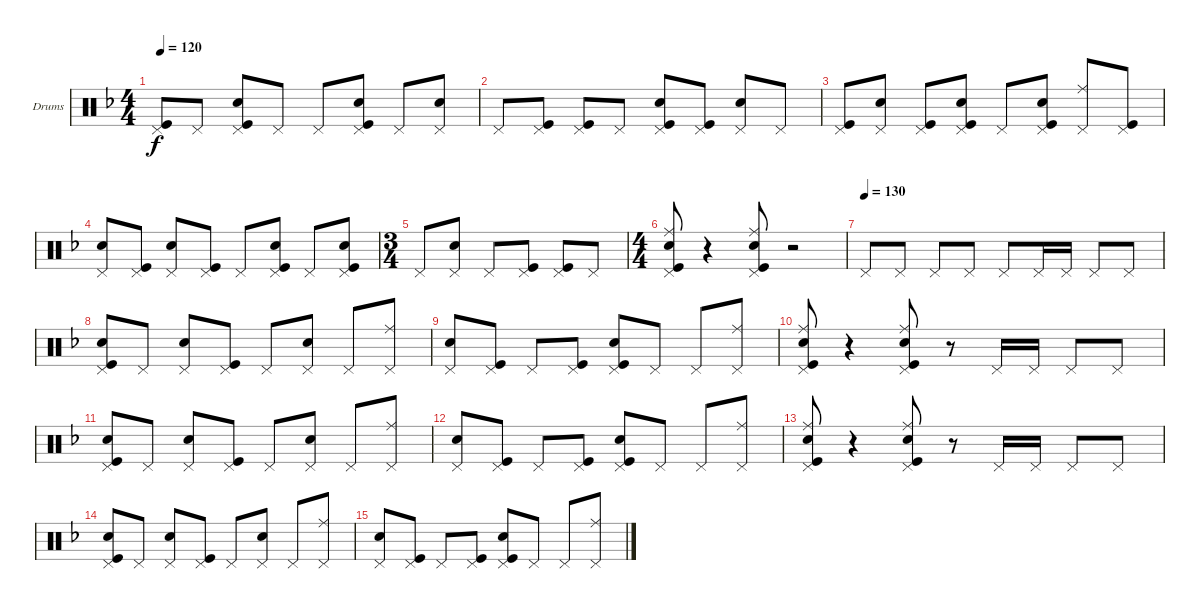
\defaultSystemsLayout 4
\bracketExtendMode groupsimilarinstruments
\firstSystemTrackNameOrientation horizontal
\otherSystemsTrackNameOrientation horizontal
\track ("Drumkit" "Drums") {instrument percussion}
\staff {score}
\articulation defaults
\ts (4 4)
\tempo 120
\clef neutral
\ks f
("Pedal Hi-Hat (hit)" "Kick (hit)").8{dy f} "Pedal Hi-Hat (hit)".8 ("Pedal Hi-Hat (hit)" "Kick (hit)" "Snare (hit) 2").8 "Pedal Hi-Hat (hit)".8 "Pedal Hi-Hat (hit)".8 ("Pedal Hi-Hat (hit)" "Kick (hit)" "Snare (hit) 2").8 "Pedal Hi-Hat (hit)".8 ("Pedal Hi-Hat (hit)" "Snare (hit) 2").8 |
"Pedal Hi-Hat (hit)".8 ("Pedal Hi-Hat (hit)" "Kick (hit)").8 ("Pedal Hi-Hat (hit)" "Kick (hit)").8 "Pedal Hi-Hat (hit)".8 ("Pedal Hi-Hat (hit)" "Kick (hit)" "Snare (hit) 2").8 ("Pedal Hi-Hat (hit)" "Kick (hit)").8 ("Pedal Hi-Hat (hit)" "Snare (hit) 2").8 "Pedal Hi-Hat (hit)".8 |
("Pedal Hi-Hat (hit)" "Kick (hit)").8 ("Pedal Hi-Hat (hit)" "Snare (hit) 2").8 ("Pedal Hi-Hat (hit)" "Kick (hit)").8 ("Pedal Hi-Hat (hit)" "Kick (hit)" "Snare (hit) 2").8 "Pedal Hi-Hat (hit)".8 ("Pedal Hi-Hat (hit)" "Snare (hit) 2" "Kick (hit)").8 ("Pedal Hi-Hat (hit)" "Ride (middle)").8 ("Pedal Hi-Hat (hit)" "Kick (hit)").8 |
("Pedal Hi-Hat (hit)" "Snare (hit) 2").8 ("Pedal Hi-Hat (hit)" "Kick (hit)").8 ("Pedal Hi-Hat (hit)" "Snare (hit) 2").8 ("Pedal Hi-Hat (hit)" "Kick (hit)").8 "Pedal Hi-Hat (hit)".8 ("Pedal Hi-Hat (hit)" "Kick (hit)" "Snare (hit) 2").8 "Pedal Hi-Hat (hit)".8 ("Pedal Hi-Hat (hit)" "Kick (hit)" "Snare (hit) 2").8 |
\ts (3 4)
"Pedal Hi-Hat (hit)".8 ("Pedal Hi-Hat (hit)" "Snare (hit) 2").8 "Pedal Hi-Hat (hit)".8 ("Pedal Hi-Hat (hit)" "Kick (hit)").8 ("Pedal Hi-Hat (hit)" "Kick (hit)").8 "Pedal Hi-Hat (hit)".8 |
\ts (4 4)
("Pedal Hi-Hat (hit)" "Kick (hit)" "Ride (middle)" "Snare (hit) 2").8 r.4 ("Ride (middle)" "Kick (hit)" "Pedal Hi-Hat (hit)" "Snare (hit) 2").8 r.2 |
\tempo (130)
"Pedal Hi-Hat (hit)".8 "Pedal Hi-Hat (hit)".8 "Pedal Hi-Hat (hit)".8 "Pedal Hi-Hat (hit)".8 "Pedal Hi-Hat (hit)".8 "Pedal Hi-Hat (hit)".16 "Pedal Hi-Hat (hit)".16 "Pedal Hi-Hat (hit)".8 "Pedal Hi-Hat (hit)".8 |
("Pedal Hi-Hat (hit)" "Kick (hit)" "Snare (hit) 2").8 "Pedal Hi-Hat (hit)".8 ("Pedal Hi-Hat (hit)" "Snare (hit) 2").8 ("Pedal Hi-Hat (hit)" "Kick (hit)").8 "Pedal Hi-Hat (hit)".8 ("Pedal Hi-Hat (hit)" "Snare (hit) 2").8 "Pedal Hi-Hat (hit)".8 ("Pedal Hi-Hat (hit)" "Ride (middle)").8 |
("Pedal Hi-Hat (hit)" "Snare (hit) 2").8 ("Pedal Hi-Hat (hit)" "Kick (hit)").8 "Pedal Hi-Hat (hit)".8 ("Pedal Hi-Hat (hit)" "Kick (hit)").8 ("Pedal Hi-Hat (hit)" "Snare (hit) 2" "Kick (hit)").8 "Pedal Hi-Hat (hit)".8 "Pedal Hi-Hat (hit)".8 ("Pedal Hi-Hat (hit)" "Ride (middle)").8 |
("Pedal Hi-Hat (hit)" "Kick (hit)" "Snare (hit) 2" "Ride (middle)").8 r.4 ("Pedal Hi-Hat (hit)" "Snare (hit) 2" "Kick (hit)" "Ride (middle)").8 r.8 "Pedal Hi-Hat (hit)".16 "Pedal Hi-Hat (hit)".16 "Pedal Hi-Hat (hit)".8 "Pedal Hi-Hat (hit)".8 |
("Pedal Hi-Hat (hit)" "Kick (hit)" "Snare (hit) 2").8 "Pedal Hi-Hat (hit)".8 ("Pedal Hi-Hat (hit)" "Snare (hit) 2").8 ("Pedal Hi-Hat (hit)" "Kick (hit)").8 "Pedal Hi-Hat (hit)".8 ("Pedal Hi-Hat (hit)" "Snare (hit) 2").8 "Pedal Hi-Hat (hit)".8 ("Pedal Hi-Hat (hit)" "Ride (middle)").8 |
("Pedal Hi-Hat (hit)" "Snare (hit) 2").8 ("Pedal Hi-Hat (hit)" "Kick (hit)").8 "Pedal Hi-Hat (hit)".8 ("Pedal Hi-Hat (hit)" "Kick (hit)").8 ("Pedal Hi-Hat (hit)" "Snare (hit) 2" "Kick (hit)").8 "Pedal Hi-Hat (hit)".8 "Pedal Hi-Hat (hit)".8 ("Pedal Hi-Hat (hit)" "Ride (middle)").8 |
("Pedal Hi-Hat (hit)" "Kick (hit)" "Snare (hit) 2" "Ride (middle)").8 r.4 ("Pedal Hi-Hat (hit)" "Snare (hit) 2" "Kick (hit)" "Ride (middle)").8 r.8 "Pedal Hi-Hat (hit)".16 "Pedal Hi-Hat (hit)".16 "Pedal Hi-Hat (hit)".8 "Pedal Hi-Hat (hit)".8 |
("Pedal Hi-Hat (hit)" "Kick (hit)" "Snare (hit) 2").8 "Pedal Hi-Hat (hit)".8 ("Pedal Hi-Hat (hit)" "Snare (hit) 2").8 ("Pedal Hi-Hat (hit)" "Kick (hit)").8 "Pedal Hi-Hat (hit)".8 ("Pedal Hi-Hat (hit)" "Snare (hit) 2").8 "Pedal Hi-Hat (hit)".8 ("Pedal Hi-Hat (hit)" "Ride (middle)").8 |
("Pedal Hi-Hat (hit)" "Snare (hit) 2").8 ("Pedal Hi-Hat (hit)" "Kick (hit)").8 "Pedal Hi-Hat (hit)".8 ("Pedal Hi-Hat (hit)" "Kick (hit)").8 ("Pedal Hi-Hat (hit)" "Snare (hit) 2" "Kick (hit)").8 "Pedal Hi-Hat (hit)".8 "Pedal Hi-Hat (hit)".8 ("Pedal Hi-Hat (hit)" "Ride (middle)").8
